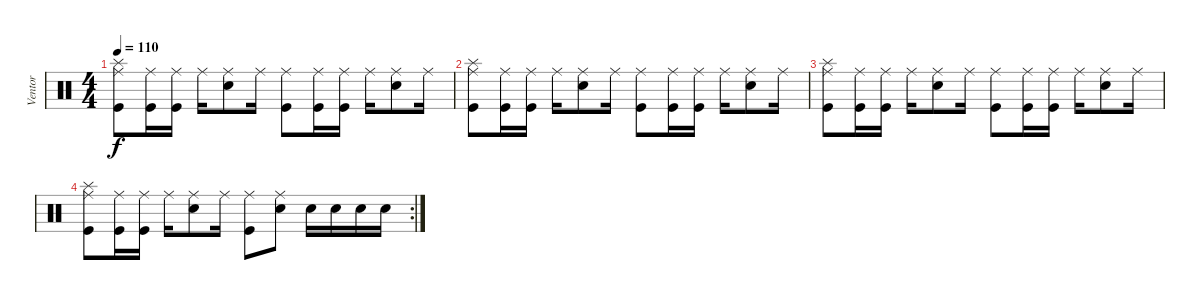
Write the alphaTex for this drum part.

\track ("Ventor" "Ventor") {instrument percussion}
\staff {score}
\articulation defaults
\ts (4 4)
\tempo 110
\clef neutral
\ks c
("Kick (hit)" "Ride (middle)" "Splash (hit)").8{dy f} ("Kick (hit)" "Ride (middle)").16 ("Kick (hit)" "Ride (middle)").16 "Ride (middle)".16 ("Snare (hit) 2" "Ride (middle)").8 "Ride (middle)".16 ("Kick (hit)" "Ride (middle)").8 ("Kick (hit)" "Ride (middle)").16 ("Kick (hit)" "Ride (middle)").16 "Ride (middle)".16 ("Snare (hit) 2" "Ride (middle)").8 "Ride (middle)".16 |
("Kick (hit)" "Ride (middle)" "Splash (hit)").8 ("Kick (hit)" "Ride (middle)").16 ("Kick (hit)" "Ride (middle)").16 "Ride (middle)".16 ("Snare (hit) 2" "Ride (middle)").8 "Ride (middle)".16 ("Kick (hit)" "Ride (middle)").8 ("Kick (hit)" "Ride (middle)").16 ("Kick (hit)" "Ride (middle)").16 "Ride (middle)".16 ("Snare (hit) 2" "Ride (middle)").8 "Ride (middle)".16 |
("Kick (hit)" "Ride (middle)" "Splash (hit)").8 ("Kick (hit)" "Ride (middle)").16 ("Kick (hit)" "Ride (middle)").16 "Ride (middle)".16 ("Snare (hit) 2" "Ride (middle)").8 "Ride (middle)".16 ("Kick (hit)" "Ride (middle)").8 ("Kick (hit)" "Ride (middle)").16 ("Kick (hit)" "Ride (middle)").16 "Ride (middle)".16 ("Snare (hit) 2" "Ride (middle)").8 "Ride (middle)".16 |
\rc 2
("Kick (hit)" "Ride (middle)" "Splash (hit)").8 ("Kick (hit)" "Ride (middle)").16 ("Kick (hit)" "Ride (middle)").16 "Ride (middle)".16 ("Snare (hit) 2" "Ride (middle)").8 "Ride (middle)".16 ("Kick (hit)" "Ride (middle)").8 ("Ride (middle)" "Snare (hit) 2").8 "Snare (hit) 2".16 "Snare (hit) 2".16 "Snare (hit) 2".16 "Snare (hit) 2".16
